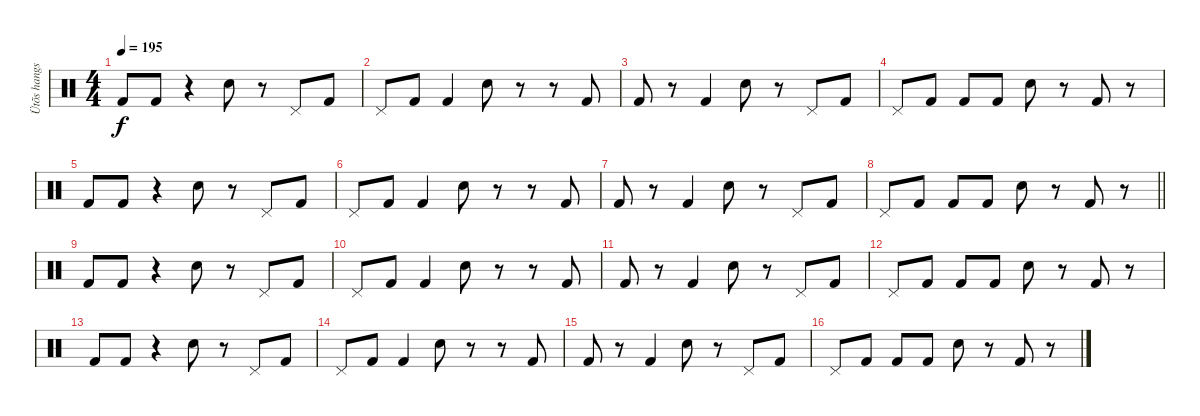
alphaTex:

\track ("Ütõs hangszer" "Ütõs hangs") {instrument percussion}
\staff {score}
\articulation defaults
\ts (4 4)
\tempo 195
\clef neutral
\ks c "Kick (hit) 2".8{dy f} "Kick (hit) 2".8
r.4 "Electric Snare (hit)".8 r.8 "Pedal Hi-Hat (hit)".8 "Kick (hit) 2".8 |
"Pedal Hi-Hat (hit)".8 "Kick (hit) 2".8 "Kick (hit) 2".4 "Electric Snare (hit)".8 r.8 r.8 "Kick (hit) 2".8 |
"Kick (hit) 2".8 r.8 "Kick (hit) 2".4 "Electric Snare (hit)".8 r.8 "Pedal Hi-Hat (hit)".8 "Kick (hit) 2".8 |
"Pedal Hi-Hat (hit)".8 "Kick (hit) 2".8 "Kick (hit) 2".8 "Kick (hit) 2".8 "Electric Snare (hit)".8 r.8 "Kick (hit) 2".8 r.8 |
"Kick (hit) 2".8 "Kick (hit) 2".8 r.4 "Electric Snare (hit)".8 r.8 "Pedal Hi-Hat (hit)".8 "Kick (hit) 2".8 |
"Pedal Hi-Hat (hit)".8 "Kick (hit) 2".8 "Kick (hit) 2".4 "Electric Snare (hit)".8 r.8 r.8 "Kick (hit) 2".8 |
"Kick (hit) 2".8 r.8 "Kick (hit) 2".4 "Electric Snare (hit)".8 r.8 "Pedal Hi-Hat (hit)".8 "Kick (hit) 2".8 |
\barLineRight lightlight "Pedal Hi-Hat (hit)".8 "Kick (hit) 2".8 "Kick (hit) 2".8 "Kick (hit) 2".8 "Electric Snare (hit)".8
r.8 "Kick (hit) 2".8 r.8 |
\section ("" "")
"Kick (hit) 2".8 "Kick (hit) 2".8 r.4 "Electric Snare (hit)".8 r.8 "Pedal Hi-Hat (hit)".8 "Kick (hit) 2".8 |
"Pedal Hi-Hat (hit)".8 "Kick (hit) 2".8 "Kick (hit) 2".4 "Electric Snare (hit)".8 r.8 r.8 "Kick (hit) 2".8 |
"Kick (hit) 2".8 r.8 "Kick (hit) 2".4 "Electric Snare (hit)".8 r.8 "Pedal Hi-Hat (hit)".8 "Kick (hit) 2".8 |
"Pedal Hi-Hat (hit)".8 "Kick (hit) 2".8 "Kick (hit) 2".8 "Kick (hit) 2".8 "Electric Snare (hit)".8 r.8 "Kick (hit) 2".8 r.8 |
"Kick (hit) 2".8 "Kick (hit) 2".8 r.4 "Electric Snare (hit)".8 r.8 "Pedal Hi-Hat (hit)".8 "Kick (hit) 2".8 |
"Pedal Hi-Hat (hit)".8 "Kick (hit) 2".8 "Kick (hit) 2".4 "Electric Snare (hit)".8 r.8 r.8 "Kick (hit) 2".8 |
"Kick (hit) 2".8 r.8 "Kick (hit) 2".4 "Electric Snare (hit)".8 r.8 "Pedal Hi-Hat (hit)".8 "Kick (hit) 2".8 |
"Pedal Hi-Hat (hit)".8 "Kick (hit) 2".8 "Kick (hit) 2".8 "Kick (hit) 2".8 "Electric Snare (hit)".8 r.8 "Kick (hit) 2".8 r.8
